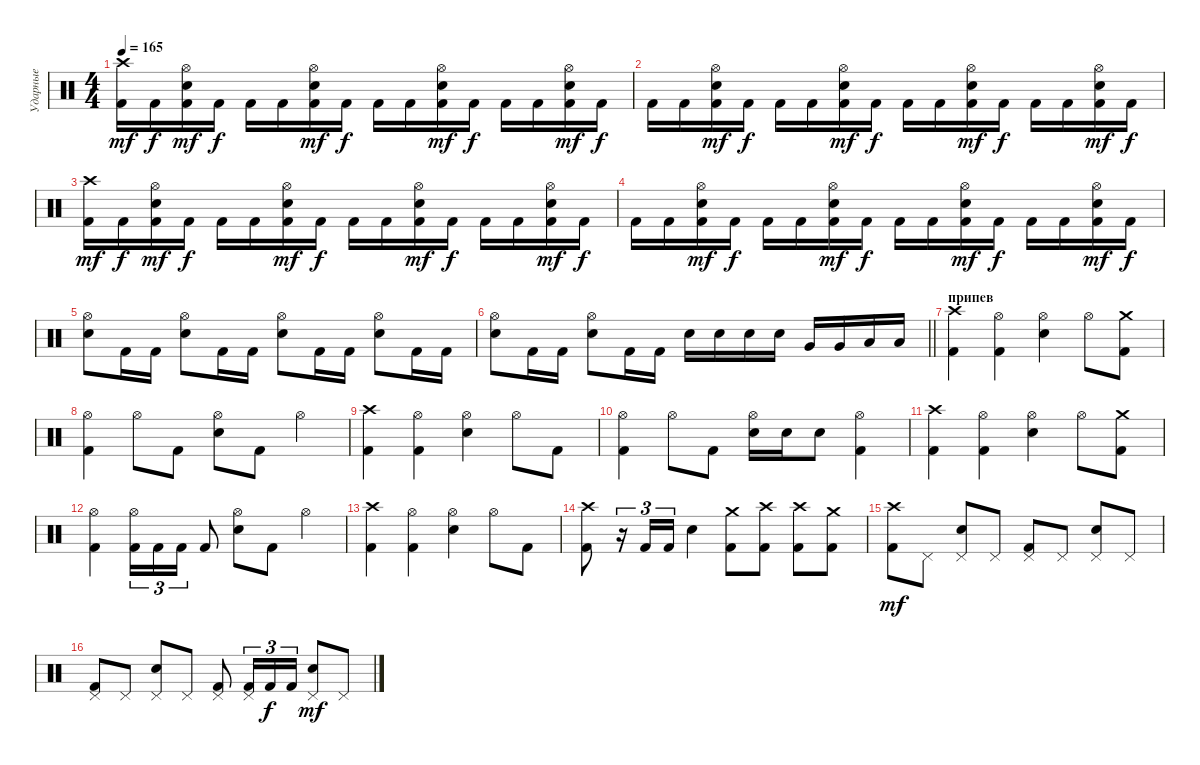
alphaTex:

\track ("Ударные" "Ударные") {instrument percussion}
\staff {score}
\articulation defaults
\ts (4 4)
\tempo 165
\clef neutral
\ks c
("Kick (hit) 2" "Crash high (hit)").16{dy mf} "Kick (hit) 2".16{dy f} ("Kick (hit) 2" "Electric Snare (hit)" "Hi-Hat (open)").16{dy mf} "Kick (hit) 2".16{dy f} "Kick (hit) 2".16 "Kick (hit) 2".16 ("Kick (hit) 2" "Electric Snare (hit)" "Hi-Hat (open)").16{dy mf} "Kick (hit) 2".16{dy f} "Kick (hit) 2".16 "Kick (hit) 2".16 ("Kick (hit) 2" "Electric Snare (hit)" "Hi-Hat (open)").16{dy mf} "Kick (hit) 2".16{dy f} "Kick (hit) 2".16 "Kick (hit) 2".16 ("Kick (hit) 2" "Electric Snare (hit)" "Hi-Hat (open)").16{dy mf} "Kick (hit) 2".16{dy f} |
"Kick (hit) 2".16 "Kick (hit) 2".16 ("Kick (hit) 2" "Electric Snare (hit)" "Hi-Hat (open)").16{dy mf} "Kick (hit) 2".16{dy f} "Kick (hit) 2".16 "Kick (hit) 2".16 ("Kick (hit) 2" "Electric Snare (hit)" "Hi-Hat (open)").16{dy mf} "Kick (hit) 2".16{dy f} "Kick (hit) 2".16 "Kick (hit) 2".16 ("Kick (hit) 2" "Electric Snare (hit)" "Hi-Hat (open)").16{dy mf} "Kick (hit) 2".16{dy f} "Kick (hit) 2".16 "Kick (hit) 2".16 ("Kick (hit) 2" "Electric Snare (hit)" "Hi-Hat (open)").16{dy mf} "Kick (hit) 2".16{dy f} |
("Kick (hit) 2" "Crash high (hit)").16{dy mf} "Kick (hit) 2".16{dy f} ("Kick (hit) 2" "Electric Snare (hit)" "Hi-Hat (open)").16{dy mf} "Kick (hit) 2".16{dy f} "Kick (hit) 2".16 "Kick (hit) 2".16 ("Kick (hit) 2" "Electric Snare (hit)" "Hi-Hat (open)").16{dy mf} "Kick (hit) 2".16{dy f} "Kick (hit) 2".16 "Kick (hit) 2".16 ("Kick (hit) 2" "Electric Snare (hit)" "Hi-Hat (open)").16{dy mf} "Kick (hit) 2".16{dy f} "Kick (hit) 2".16 "Kick (hit) 2".16 ("Kick (hit) 2" "Electric Snare (hit)" "Hi-Hat (open)").16{dy mf} "Kick (hit) 2".16{dy f} |
"Kick (hit) 2".16 "Kick (hit) 2".16 ("Kick (hit) 2" "Electric Snare (hit)" "Hi-Hat (open)").16{dy mf} "Kick (hit) 2".16{dy f} "Kick (hit) 2".16 "Kick (hit) 2".16 ("Kick (hit) 2" "Electric Snare (hit)" "Hi-Hat (open)").16{dy mf} "Kick (hit) 2".16{dy f} "Kick (hit) 2".16 "Kick (hit) 2".16 ("Kick (hit) 2" "Electric Snare (hit)" "Hi-Hat (open)").16{dy mf} "Kick (hit) 2".16{dy f} "Kick (hit) 2".16 "Kick (hit) 2".16 ("Kick (hit) 2" "Electric Snare (hit)" "Hi-Hat (open)").16{dy mf} "Kick (hit) 2".16{dy f} |
("Electric Snare (hit)" "Hi-Hat (open)").8 "Kick (hit) 2".16 "Kick (hit) 2".16 ("Electric Snare (hit)" "Hi-Hat (open)").8 "Kick (hit) 2".16 "Kick (hit) 2".16 ("Electric Snare (hit)" "Hi-Hat (open)").8 "Kick (hit) 2".16 "Kick (hit) 2".16 ("Electric Snare (hit)" "Hi-Hat (open)").8 "Kick (hit) 2".16 "Kick (hit) 2".16 |
\barLineRight lightlight
("Electric Snare (hit)" "Hi-Hat (open)").8 "Kick (hit) 2".16 "Kick (hit) 2".16 ("Electric Snare (hit)" "Hi-Hat (open)").8 "Kick (hit) 2".16 "Kick (hit) 2".16 "Electric Snare (hit)".16 "Electric Snare (hit)".16 "Electric Snare (hit)".16 "Electric Snare (hit)".16 "Very Low Tom (hit)".16 "Very Low Tom (hit)".16 "Low Floor Tom (hit)".16 "Low Floor Tom (hit)".16 |
\section ("" "припев")
("Kick (hit) 2" "Crash high (hit)").4 ("Kick (hit) 2" "Hi-Hat (open)").4 ("Electric Snare (hit)" "Hi-Hat (open)").4 "Hi-Hat (open)".8 ("Kick (hit) 2" "Crash medium (hit)").8 |
("Kick (hit) 2" "Hi-Hat (open)").4 "Hi-Hat (open)".8 "Kick (hit) 2".8 ("Electric Snare (hit)" "Hi-Hat (open)").8 "Kick (hit) 2".8 "Hi-Hat (open)".4 |
("Kick (hit) 2" "Crash high (hit)").4 ("Kick (hit) 2" "Hi-Hat (open)").4 ("Electric Snare (hit)" "Hi-Hat (open)").4 "Hi-Hat (open)".8 "Kick (hit) 2".8 |
("Kick (hit) 2" "Hi-Hat (open)").4 "Hi-Hat (open)".8 "Kick (hit) 2".8 ("Electric Snare (hit)" "Hi-Hat (open)").16 "Electric Snare (hit)".16 "Electric Snare (hit)".8 ("Kick (hit) 2" "Hi-Hat (open)").4 |
("Kick (hit) 2" "Crash high (hit)").4 ("Kick (hit) 2" "Hi-Hat (open)").4 ("Electric Snare (hit)" "Hi-Hat (open)").4 "Hi-Hat (open)".8 ("Kick (hit) 2" "Crash medium (hit)").8 |
("Kick (hit) 2" "Hi-Hat (open)").4 ("Kick (hit) 2" "Hi-Hat (open)").16{tu (3 2)} "Kick (hit) 2".16{tu (3 2)} "Kick (hit) 2".16{tu (3 2)} "Kick (hit) 2".8 ("Electric Snare (hit)" "Hi-Hat (open)").8 "Kick (hit) 2".8 "Hi-Hat (open)".4 |
("Kick (hit) 2" "Crash high (hit)").4 ("Kick (hit) 2" "Hi-Hat (open)").4 ("Electric Snare (hit)" "Hi-Hat (open)").4 "Hi-Hat (open)".8 "Kick (hit) 2".8 |
("Kick (hit) 2" "Crash high (hit)").8 r.16{tu (3 2)} "Kick (hit) 2".16{tu (3 2)} "Kick (hit) 2".16{tu (3 2)} "Electric Snare (hit)".4 ("Kick (hit) 2" "Crash medium (hit)").8 ("Kick (hit) 2" "Crash high (hit)").8 ("Kick (hit) 2" "Crash high (hit)").8 ("Kick (hit) 2" "Crash medium (hit)").8 |
("Kick (hit) 2" "Crash high (hit)").8{dy mf} "Pedal Hi-Hat (hit)".8 ("Electric Snare (hit)" "Pedal Hi-Hat (hit)").8 "Pedal Hi-Hat (hit)".8 ("Kick (hit) 2" "Pedal Hi-Hat (hit)").8 "Pedal Hi-Hat (hit)".8 ("Electric Snare (hit)" "Pedal Hi-Hat (hit)").8 "Pedal Hi-Hat (hit)".8 |
("Kick (hit) 2" "Pedal Hi-Hat (hit)").8 "Pedal Hi-Hat (hit)".8 ("Electric Snare (hit)" "Pedal Hi-Hat (hit)").8 "Pedal Hi-Hat (hit)".8 ("Kick (hit) 2" "Pedal Hi-Hat (hit)").8 ("Kick (hit) 2" "Pedal Hi-Hat (hit)").16{tu (3 2)} "Kick (hit) 2".16{tu (3 2) dy f} "Kick (hit) 2".16{tu (3 2)} ("Electric Snare (hit)" "Pedal Hi-Hat (hit)").8{dy mf} "Pedal Hi-Hat (hit)".8
